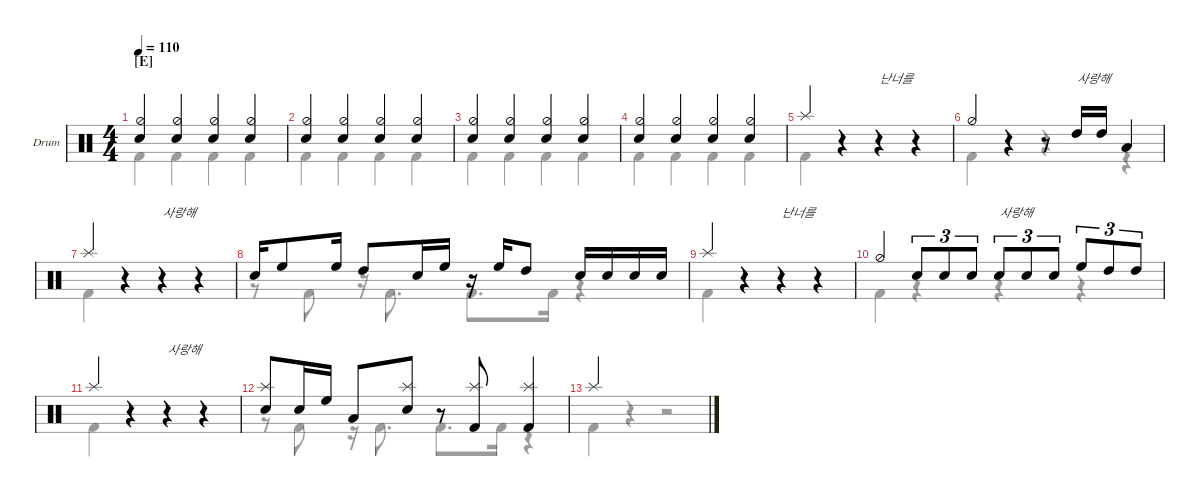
\defaultSystemsLayout 4
\hideDynamics
\bracketExtendMode nobrackets
\firstSystemTrackNameOrientation horizontal
\track ("Drumkit" "Drum") {instrument percussion}
\staff {score}
\articulation defaults
\voice
\ts (4 4)
\section ("E" "")
\tempo 110
\clef neutral
\ks c
("Snare (hit) 2" "Hi-Hat (half)").4{dy mf beam Up} ("Snare (hit) 2" "Hi-Hat (half)").4{beam Up} ("Snare (hit) 2" "Hi-Hat (half)").4{beam Up} ("Snare (hit) 2" "Hi-Hat (half)").4{beam Up} |
("Snare (hit) 2" "Hi-Hat (half)").4{beam Up} ("Snare (hit) 2" "Hi-Hat (half)").4{beam Up} ("Snare (hit) 2" "Hi-Hat (half)").4{beam Up} ("Snare (hit) 2" "Hi-Hat (half)").4{beam Up} |
("Snare (hit) 2" "Hi-Hat (half)").4{beam Up} ("Snare (hit) 2" "Hi-Hat (half)").4{beam Up} ("Snare (hit) 2" "Hi-Hat (half)").4{beam Up} ("Snare (hit) 2" "Hi-Hat (half)").4{beam Up} |
("Snare (hit) 2" "Hi-Hat (half)").4{beam Up} ("Snare (hit) 2" "Hi-Hat (half)").4{beam Up} ("Snare (hit) 2" "Hi-Hat (half)").4{beam Up} ("Snare (hit) 2" "Hi-Hat (half)").4{beam Up} |
"Splash (hit)".4{beam Up} r.4{beam Up} r.4{txt "난너를" beam Up} r.4{beam Up} |
"Hi-Hat (half)".4{beam Up} r.4{beam Up} r.8{beam Up} "High Tom (hit)".16{txt "사랑해" beam Up} "High Tom (hit)".16{beam Up} "Low Tom (hit)".4{beam Up} |
"Splash (hit)".4{beam Up} r.4{beam Up} r.4{txt "사랑해" beam Up} r.4{beam Up} |
"Snare (hit) 2".16{beam Up} "High Floor Tom (hit)".8{beam Up} "High Floor Tom (hit)".16{beam Up} "High Tom (hit)".8{beam Up} "Snare (hit) 2".16{beam Up} "High Floor Tom (hit)".16{beam Up} r.16{beam Up} "High Floor Tom (hit)".16{beam Up} "High Tom (hit)".8{beam Up} "Snare (hit) 2".16{beam Up} "Snare (hit) 2".16{beam Up} "Snare (hit) 2".16{beam Up} "Snare (hit) 2".16{beam Up} |
"Splash (hit)".4{beam Up} r.4{beam Up} r.4{txt "난너를" beam Up} r.4{beam Up} |
"Hi-Hat (half)".4{beam Up} "Snare (hit) 2".8{tu (3 2) beam Up} "Snare (hit) 2".8{tu (3 2) beam Up} "Snare (hit) 2".8{tu (3 2) beam Up} "Snare (hit) 2".8{tu (3 2) txt "사랑해" beam Up} "Snare (hit) 2".8{tu (3 2) beam Up} "Snare (hit) 2".8{tu (3 2) beam Up} "High Floor Tom (hit)".8{tu (3 2) beam Up} "High Tom (hit)".8{tu (3 2) beam Up} "High Tom (hit)".8{tu (3 2) beam Up} |
"Splash (hit)".4{beam Up} r.4{beam Up} r.4{txt "사랑해" beam Up} r.4{beam Up} |
("Splash (hit)" "Snare (hit) 2").8{beam Up} "Snare (hit) 2".16{beam Up} "High Floor Tom (hit)".16{beam Up} "Low Tom (hit)".8{beam Up} ("Snare (hit) 2" "Splash (hit)").8{beam Up} r.8{beam Up} ("Splash (hit)" "Kick (hit) 2").8{beam Up} ("Splash (hit)" "Kick (hit) 2").4{beam Up} |
"Splash (hit)".4{beam Up} |
|
|
\voice
\clef neutral
\ottava regular
\simile none
\ks c
|
|
|
|
|
|
|
|
|
|
|
|
|
|
|
\voice
\clef neutral
\ottava regular
\simile none
\ks c "Kick (hit) 2".4{dy mf beam Down} "Kick (hit) 2".4{beam Down} "Kick (hit) 2".4{beam Down} "Kick (hit) 2".4{beam Down}
|
"Kick (hit) 2".4{beam Down} "Kick (hit) 2".4{beam Down} "Kick (hit) 2".4{beam Down} "Kick (hit) 2".4{beam Down} |
"Kick (hit) 2".4{beam Down} "Kick (hit) 2".4{beam Down} "Kick (hit) 2".4{beam Down} "Kick (hit) 2".4{beam Down} |
"Kick (hit) 2".4{beam Down} "Kick (hit) 2".4{beam Down} "Kick (hit) 2".4{beam Down} "Kick (hit) 2".4{beam Down} |
"Kick (hit) 2".4{beam Down} r.4{beam Down} r.4{beam Down} r.4{beam Down} |
"Kick (hit) 2".4{beam Down} r.4{beam Down} r.4{beam Down} r.4{beam Down} |
"Kick (hit) 2".4{beam Down} r.4{beam Down} r.4{beam Down} r.4{beam Down} |
r.8{beam Down} "Kick (hit) 2".8{beam Down} r.16{beam Down} "Kick (hit) 2".8{d beam Down} "Kick (hit) 2".8{d beam Down} "Kick (hit) 2".16{beam Down} r.4{beam Down} |
"Kick (hit) 2".4{beam Down} r.4{beam Down} r.4{beam Down} r.4{beam Down} |
"Kick (hit) 2".4{beam Down} r.4{beam Down} r.4{beam Down} r.4{beam Down} |
"Kick (hit) 2".4{beam Down} r.4{beam Down} r.4{beam Down} r.4{beam Down} |
r.8{beam Down} "Kick (hit) 2".8{beam Down} r.16{beam Down} "Kick (hit) 2".8{d beam Down} "Kick (hit) 2".8{d beam Down} "Kick (hit) 2".16{beam Down} r.4{beam Down} |
"Kick (hit) 2".4{beam Down} r.4{beam Down} r.2{beam Down} |
|
|
